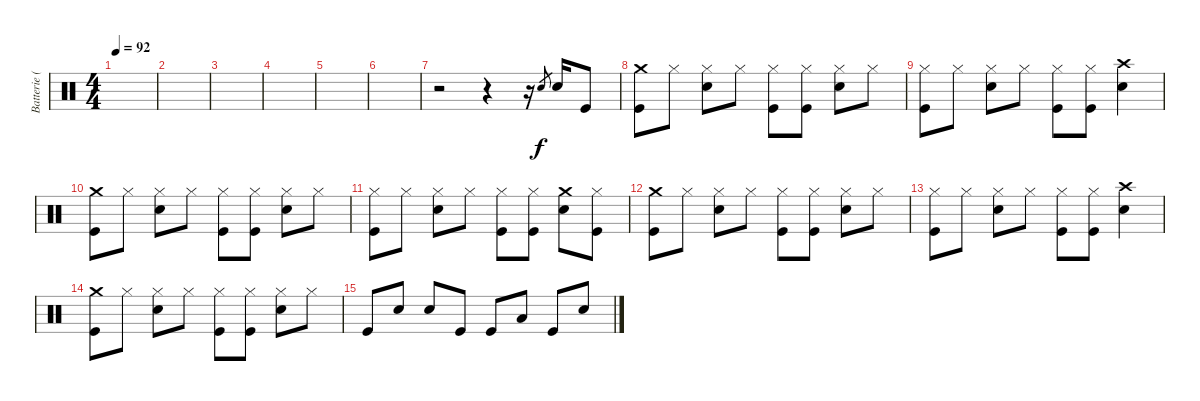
\track ("Batterie (pas fait ^^)" "Batterie (") {instrument percussion}
\staff {score}
\articulation defaults
\ts (4 4)
\tempo 92
\clef neutral
\ks c
|
|
|
|
|
|
r.2 r.4 r.16 "Electric Snare (hit)".8{gr} "Snare (hit) 2".16 "Kick (hit)".8 |
("Crash medium (hit)" "Kick (hit)").8 "Hi-Hat (closed)".8 ("Hi-Hat (closed)" "Snare (hit) 2").8 "Hi-Hat (closed)".8 ("Hi-Hat (closed)" "Kick (hit)").8 ("Hi-Hat (closed)" "Kick (hit)").8 ("Hi-Hat (closed)" "Snare (hit) 2").8 "Hi-Hat (closed)".8 |
("Hi-Hat (closed)" "Kick (hit)").8 "Hi-Hat (closed)".8 ("Hi-Hat (closed)" "Snare (hit) 2").8 "Hi-Hat (closed)".8 ("Hi-Hat (closed)" "Kick (hit)").8 ("Hi-Hat (closed)" "Kick (hit)").8 ("Crash high (hit)" "Snare (hit) 2").4 |
("Crash medium (hit)" "Kick (hit)").8 "Hi-Hat (closed)".8 ("Hi-Hat (closed)" "Snare (hit) 2").8 "Hi-Hat (closed)".8 ("Hi-Hat (closed)" "Kick (hit)").8 ("Hi-Hat (closed)" "Kick (hit)").8 ("Hi-Hat (closed)" "Snare (hit) 2").8 "Hi-Hat (closed)".8 |
("Hi-Hat (closed)" "Kick (hit)").8 "Hi-Hat (closed)".8 ("Hi-Hat (closed)" "Snare (hit) 2").8 "Hi-Hat (closed)".8 ("Hi-Hat (closed)" "Kick (hit)").8 ("Hi-Hat (closed)" "Kick (hit)").8 ("Crash medium (hit)" "Snare (hit) 2").8 ("Hi-Hat (closed)" "Kick (hit)").8 |
("Crash medium (hit)" "Kick (hit)").8 "Hi-Hat (closed)".8 ("Hi-Hat (closed)" "Snare (hit) 2").8 "Hi-Hat (closed)".8 ("Hi-Hat (closed)" "Kick (hit)").8 ("Hi-Hat (closed)" "Kick (hit)").8 ("Hi-Hat (closed)" "Snare (hit) 2").8 "Hi-Hat (closed)".8 |
("Hi-Hat (closed)" "Kick (hit)").8 "Hi-Hat (closed)".8 ("Hi-Hat (closed)" "Snare (hit) 2").8 "Hi-Hat (closed)".8 ("Hi-Hat (closed)" "Kick (hit)").8 ("Hi-Hat (closed)" "Kick (hit)").8 ("Crash high (hit)" "Snare (hit) 2").4 |
("Crash medium (hit)" "Kick (hit)").8 "Hi-Hat (closed)".8 ("Hi-Hat (closed)" "Snare (hit) 2").8 "Hi-Hat (closed)".8 ("Hi-Hat (closed)" "Kick (hit)").8 ("Hi-Hat (closed)" "Kick (hit)").8 ("Hi-Hat (closed)" "Snare (hit) 2").8 "Hi-Hat (closed)".8 |
"Kick (hit)".8 "Snare (hit) 2".8 "Snare (hit) 2".8 "Kick (hit)".8 "Kick (hit)".8 "Low Floor Tom (hit)".8 "Kick (hit)".8 "Snare (hit) 2".8
